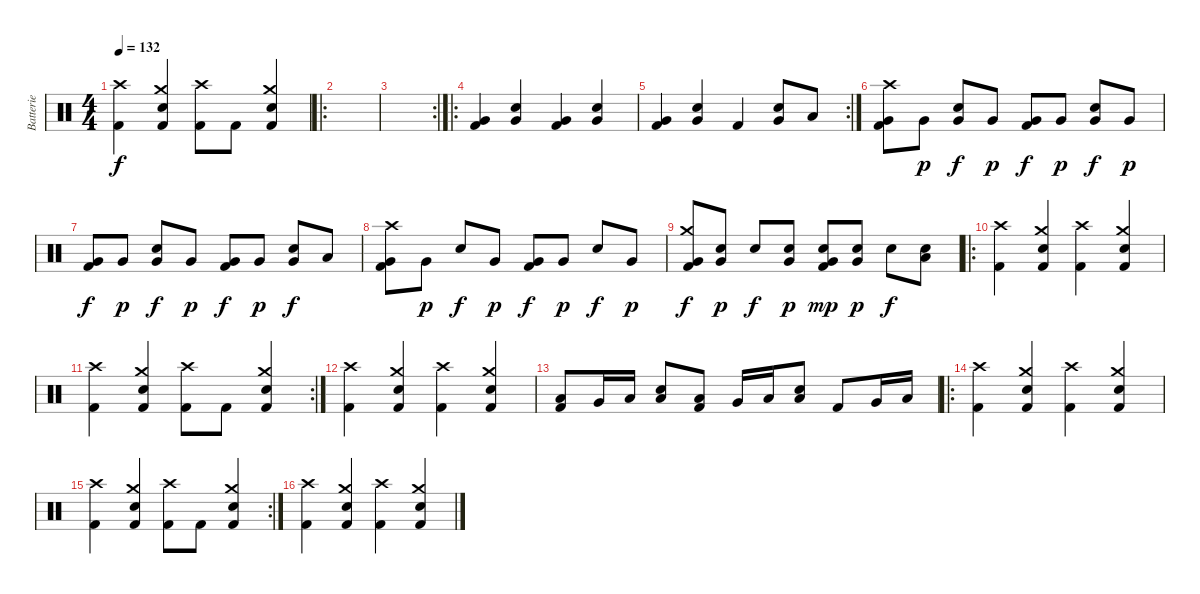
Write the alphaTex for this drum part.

\track ("Batterie" "Batterie") {instrument percussion}
\staff {score}
\articulation defaults
\ts (4 4)
\tempo 132
\clef neutral
\ks c
("Crash high (hit)" "Kick (hit) 2").4{dy f} ("Crash medium (hit)" "Electric Snare (hit)" "Kick (hit) 2").4 ("Crash high (hit)" "Kick (hit) 2").8 "Kick (hit) 2".8 ("Crash medium (hit)" "Electric Snare (hit)" "Kick (hit) 2").4 |
\ro
|
\rc 2
|
\ro
("Very Low Tom (hit)" "Kick (hit) 2").4 ("Electric Snare (hit)" "Very Low Tom (hit)").4 ("Very Low Tom (hit)" "Kick (hit) 2").4 ("Electric Snare (hit)" "Very Low Tom (hit)").4 |
\rc 2
("Very Low Tom (hit)" "Kick (hit) 2").4 ("Electric Snare (hit)" "Very Low Tom (hit)").4 "Kick (hit) 2".4 ("Electric Snare (hit)" "Very Low Tom (hit)").8 "Low Tom (hit)".8 |
("Crash high (hit)" "Very Low Tom (hit)" "Kick (hit) 2").8 "Very Low Tom (hit)".8{dy p} ("Electric Snare (hit)" "Very Low Tom (hit)").8{dy f} "Very Low Tom (hit)".8{dy p} ("Very Low Tom (hit)" "Kick (hit) 2").8{dy f} "Very Low Tom (hit)".8{dy p} ("Electric Snare (hit)" "Very Low Tom (hit)").8{dy f} "Very Low Tom (hit)".8{dy p} |
("Very Low Tom (hit)" "Kick (hit) 2").8{dy f} "Very Low Tom (hit)".8{dy p} ("Electric Snare (hit)" "Very Low Tom (hit)").8{dy f} "Very Low Tom (hit)".8{dy p} ("Very Low Tom (hit)" "Kick (hit) 2").8{dy f} "Very Low Tom (hit)".8{dy p} ("Electric Snare (hit)" "Very Low Tom (hit)").8{dy f} "Low Tom (hit)".8 |
("Crash high (hit)" "Very Low Tom (hit)" "Kick (hit) 2").8 "Very Low Tom (hit)".8{dy p} "Electric Snare (hit)".8{dy f} "Very Low Tom (hit)".8{dy p} ("Very Low Tom (hit)" "Kick (hit) 2").8{dy f} "Very Low Tom (hit)".8{dy p} "Electric Snare (hit)".8{dy f} "Very Low Tom (hit)".8{dy p} |
("Crash medium (hit)" "Very Low Tom (hit)" "Kick (hit) 2").8{dy f} ("Electric Snare (hit)" "Very Low Tom (hit)").8{dy p} "Electric Snare (hit)".8{dy f} ("Electric Snare (hit)" "Very Low Tom (hit)").8{dy p} ("Electric Snare (hit)" "Very Low Tom (hit)" "Kick (hit) 2").8{dy mp} ("Electric Snare (hit)" "Very Low Tom (hit)").8{dy p} "Electric Snare (hit)".8{dy f} ("Electric Snare (hit)" "Low Tom (hit)").8 |
\ro
("Crash high (hit)" "Kick (hit) 2").4 ("Crash medium (hit)" "Electric Snare (hit)" "Kick (hit) 2").4 ("Crash high (hit)" "Kick (hit) 2").4 ("Crash medium (hit)" "Electric Snare (hit)" "Kick (hit) 2").4 |
\rc 2
("Crash high (hit)" "Kick (hit) 2").4 ("Crash medium (hit)" "Electric Snare (hit)" "Kick (hit) 2").4 ("Crash high (hit)" "Kick (hit) 2").8 "Kick (hit) 2".8 ("Crash medium (hit)" "Electric Snare (hit)" "Kick (hit) 2").4 |
("Crash high (hit)" "Kick (hit) 2").4 ("Crash medium (hit)" "Electric Snare (hit)" "Kick (hit) 2").4 ("Crash high (hit)" "Kick (hit) 2").4 ("Crash medium (hit)" "Electric Snare (hit)" "Kick (hit) 2").4 |
("Low Tom (hit)" "Kick (hit) 2").8 "Very Low Tom (hit)".16 "Low Tom (hit)".16 ("Electric Snare (hit)" "Low Floor Tom (hit)").8 ("Low Tom (hit)" "Kick (hit) 2").8 "Very Low Tom (hit)".16 "Low Tom (hit)".16 ("Electric Snare (hit)" "Low Floor Tom (hit)").8 "Kick (hit) 2".8 "Very Low Tom (hit)".16 "Low Tom (hit)".16 |
\ro
("Crash high (hit)" "Kick (hit) 2").4 ("Crash medium (hit)" "Electric Snare (hit)" "Kick (hit) 2").4 ("Crash high (hit)" "Kick (hit) 2").4 ("Crash medium (hit)" "Electric Snare (hit)" "Kick (hit) 2").4 |
\rc 2
("Crash high (hit)" "Kick (hit) 2").4 ("Crash medium (hit)" "Electric Snare (hit)" "Kick (hit) 2").4 ("Crash high (hit)" "Kick (hit) 2").8 "Kick (hit) 2".8 ("Crash medium (hit)" "Electric Snare (hit)" "Kick (hit) 2").4 |
("Crash high (hit)" "Kick (hit) 2").4 ("Crash medium (hit)" "Electric Snare (hit)" "Kick (hit) 2").4 ("Crash high (hit)" "Kick (hit) 2").4 ("Crash medium (hit)" "Electric Snare (hit)" "Kick (hit) 2").4
